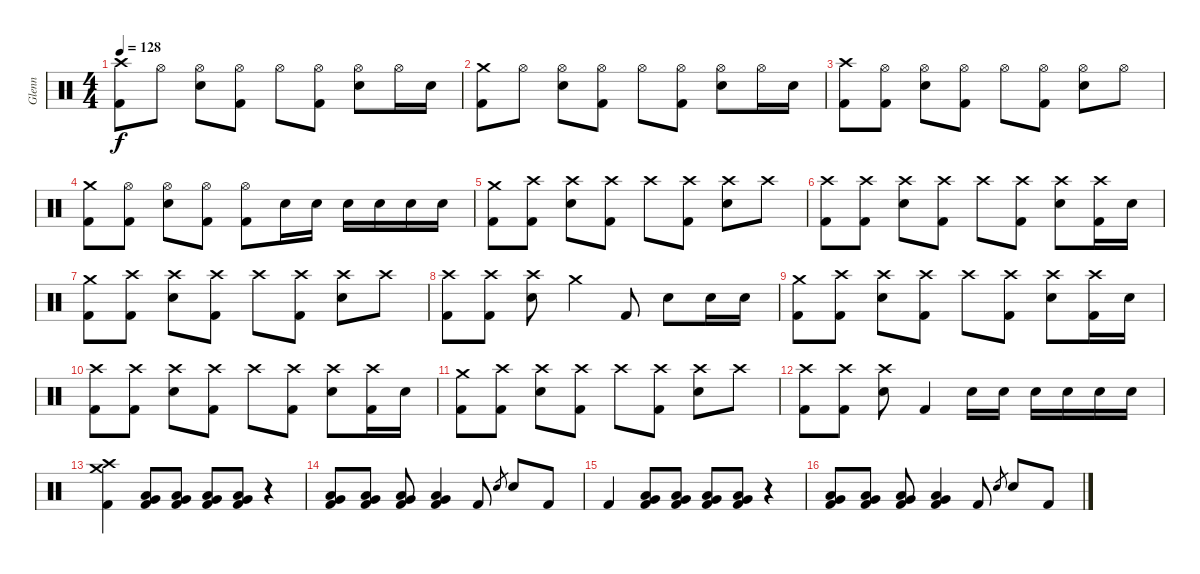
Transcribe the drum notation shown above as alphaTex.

\track ("Glenn" "Glenn") {instrument percussion}
\staff {score}
\articulation defaults
\ts (4 4)
\tempo 128
\clef neutral
\ks c
("Crash high (hit)" "Kick (hit) 2").8{dy f} "Hi-Hat (open)".8 ("Hi-Hat (open)" "Electric Snare (hit)").8 ("Hi-Hat (open)" "Kick (hit) 2").8 "Hi-Hat (open)".8 ("Hi-Hat (open)" "Kick (hit) 2").8 ("Hi-Hat (open)" "Electric Snare (hit)").8 "Hi-Hat (open)".16 "Electric Snare (hit)".16 |
("Crash medium (hit)" "Kick (hit) 2").8 "Hi-Hat (open)".8 ("Hi-Hat (open)" "Electric Snare (hit)").8 ("Hi-Hat (open)" "Kick (hit) 2").8 "Hi-Hat (open)".8 ("Hi-Hat (open)" "Kick (hit) 2").8 ("Hi-Hat (open)" "Electric Snare (hit)").8 "Hi-Hat (open)".16 "Electric Snare (hit)".16 |
("Crash high (hit)" "Kick (hit) 2").8 ("Hi-Hat (open)" "Kick (hit) 2").8 ("Hi-Hat (open)" "Electric Snare (hit)").8 ("Hi-Hat (open)" "Kick (hit) 2").8 "Hi-Hat (open)".8 ("Hi-Hat (open)" "Kick (hit) 2").8 ("Hi-Hat (open)" "Electric Snare (hit)").8 "Hi-Hat (open)".8 |
("Crash medium (hit)" "Kick (hit) 2").8 ("Hi-Hat (open)" "Kick (hit) 2").8 ("Hi-Hat (open)" "Electric Snare (hit)").8 ("Hi-Hat (open)" "Kick (hit) 2").8 ("Hi-Hat (open)" "Kick (hit) 2").8 "Electric Snare (hit)".16 "Electric Snare (hit)".16 "Electric Snare (hit)".16 "Electric Snare (hit)".16 "Electric Snare (hit)".16 "Electric Snare (hit)".16 |
("Crash medium (hit)" "Kick (hit) 2").8 ("Crash high (hit)" "Kick (hit) 2").8 ("Crash high (hit)" "Electric Snare (hit)").8 ("Crash high (hit)" "Kick (hit) 2").8 "Crash high (hit)".8 ("Crash high (hit)" "Kick (hit) 2").8 ("Crash high (hit)" "Electric Snare (hit)").8 "Crash high (hit)".8 |
("Crash high (hit)" "Kick (hit) 2").8 ("Crash high (hit)" "Kick (hit) 2").8 ("Crash high (hit)" "Electric Snare (hit)").8 ("Crash high (hit)" "Kick (hit) 2").8 "Crash high (hit)".8 ("Crash high (hit)" "Kick (hit) 2").8 ("Crash high (hit)" "Electric Snare (hit)").8 ("Crash high (hit)" "Kick (hit) 2").16 "Electric Snare (hit)".16 |
("Crash medium (hit)" "Kick (hit) 2").8 ("Crash high (hit)" "Kick (hit) 2").8 ("Crash high (hit)" "Electric Snare (hit)").8 ("Crash high (hit)" "Kick (hit) 2").8 "Crash high (hit)".8 ("Crash high (hit)" "Kick (hit) 2").8 ("Crash high (hit)" "Electric Snare (hit)").8 "Crash high (hit)".8 |
("Crash high (hit)" "Kick (hit) 2").8 ("Crash high (hit)" "Kick (hit) 2").8 ("Crash high (hit)" "Electric Snare (hit)").8 "Crash medium (hit)".4 "Kick (hit) 2".8 "Electric Snare (hit)".8 "Electric Snare (hit)".16 "Electric Snare (hit)".16 |
("Crash medium (hit)" "Kick (hit) 2").8 ("Crash high (hit)" "Kick (hit) 2").8 ("Crash high (hit)" "Electric Snare (hit)").8 ("Crash high (hit)" "Kick (hit) 2").8 "Crash high (hit)".8 ("Crash high (hit)" "Kick (hit) 2").8 ("Crash high (hit)" "Electric Snare (hit)").8 ("Crash high (hit)" "Kick (hit) 2").16 "Electric Snare (hit)".16 |
("Crash high (hit)" "Kick (hit) 2").8 ("Crash high (hit)" "Kick (hit) 2").8 ("Crash high (hit)" "Electric Snare (hit)").8 ("Crash high (hit)" "Kick (hit) 2").8 "Crash high (hit)".8 ("Crash high (hit)" "Kick (hit) 2").8 ("Crash high (hit)" "Electric Snare (hit)").8 ("Crash high (hit)" "Kick (hit) 2").16 "Electric Snare (hit)".16 |
("Crash medium (hit)" "Kick (hit) 2").8 ("Crash high (hit)" "Kick (hit) 2").8 ("Crash high (hit)" "Electric Snare (hit)").8 ("Crash high (hit)" "Kick (hit) 2").8 "Crash high (hit)".8 ("Crash high (hit)" "Kick (hit) 2").8 ("Crash high (hit)" "Electric Snare (hit)").8 "Crash high (hit)".8 |
("Crash high (hit)" "Kick (hit) 2").8 ("Crash high (hit)" "Kick (hit) 2").8 ("Crash high (hit)" "Electric Snare (hit)").8 "Kick (hit) 2".4 "Electric Snare (hit)".16 "Electric Snare (hit)".16 "Electric Snare (hit)".16 "Electric Snare (hit)".16 "Electric Snare (hit)".16 "Electric Snare (hit)".16 |
("Crash medium (hit)" "Crash high (hit)" "Kick (hit) 2").4 ("Low Tom (hit)" "Very Low Tom (hit)" "Kick (hit) 2").8 ("Low Tom (hit)" "Very Low Tom (hit)" "Kick (hit) 2").8 ("Low Tom (hit)" "Very Low Tom (hit)" "Kick (hit) 2").8 ("Low Tom (hit)" "Very Low Tom (hit)" "Kick (hit) 2").8 r.4 |
("Low Tom (hit)" "Very Low Tom (hit)" "Kick (hit) 2").8 ("Low Tom (hit)" "Very Low Tom (hit)" "Kick (hit) 2").8 ("Low Tom (hit)" "Very Low Tom (hit)" "Kick (hit) 2").8 ("Low Tom (hit)" "Very Low Tom (hit)" "Kick (hit) 2").4 "Kick (hit) 2".8 "Electric Snare (hit)".8{gr} "Electric Snare (hit)".8 "Kick (hit) 2".8 |
"Kick (hit) 2".4 ("Low Tom (hit)" "Very Low Tom (hit)" "Kick (hit) 2").8 ("Low Tom (hit)" "Very Low Tom (hit)" "Kick (hit) 2").8 ("Low Tom (hit)" "Very Low Tom (hit)" "Kick (hit) 2").8 ("Low Tom (hit)" "Very Low Tom (hit)" "Kick (hit) 2").8 r.4 |
("Low Tom (hit)" "Very Low Tom (hit)" "Kick (hit) 2").8 ("Low Tom (hit)" "Very Low Tom (hit)" "Kick (hit) 2").8 ("Low Tom (hit)" "Very Low Tom (hit)" "Kick (hit) 2").8 ("Low Tom (hit)" "Very Low Tom (hit)" "Kick (hit) 2").4 "Kick (hit) 2".8 "Electric Snare (hit)".8{gr} "Electric Snare (hit)".8 "Kick (hit) 2".8
